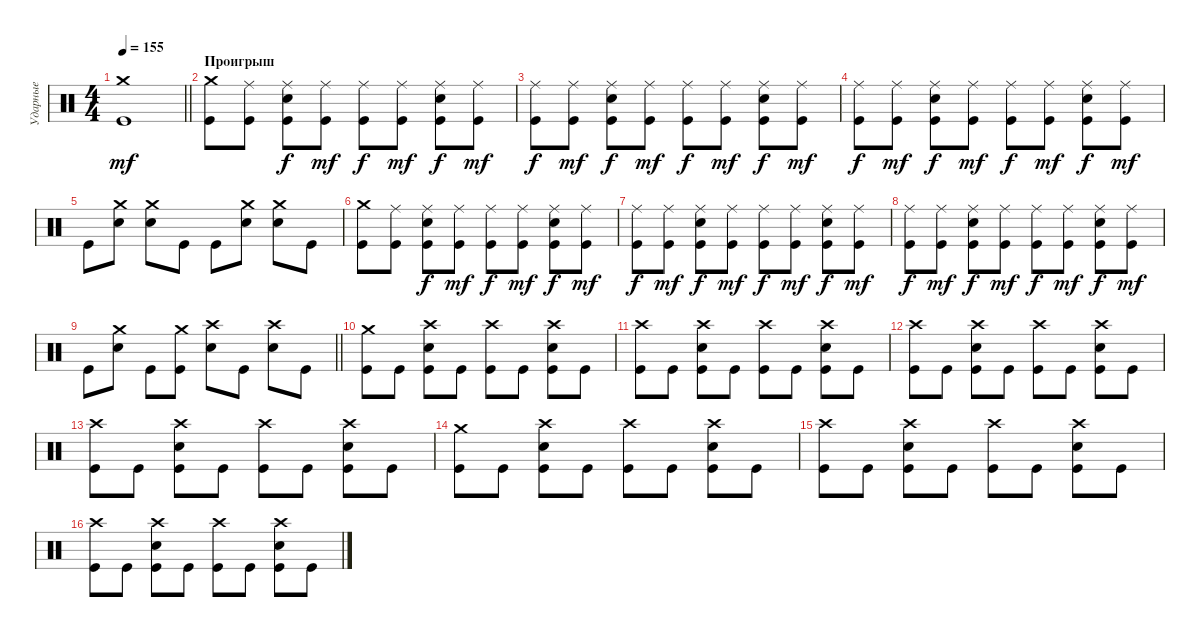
\track ("Ударные" "Ударные") {instrument percussion}
\staff {score}
\articulation defaults
\ts (4 4)
\tempo 155
\clef neutral
\barLineRight lightlight
\ks c
("Crash medium (hit)" "Kick (hit)").1{dy mf} |
\section ("" "Проигрыш")
("Kick (hit)" "Crash medium (hit)").8 ("Kick (hit)" "Ride (middle)").8 ("Electric Snare (hit)" "Kick (hit)" "Ride (middle)").8{dy f} ("Kick (hit)" "Ride (middle)").8{dy mf} ("Kick (hit)" "Ride (middle)").8{dy f} ("Kick (hit)" "Ride (middle)").8{dy mf} ("Electric Snare (hit)" "Kick (hit)" "Ride (middle)").8{dy f} ("Kick (hit)" "Ride (middle)").8{dy mf} |
("Kick (hit)" "Ride (middle)").8{dy f} ("Kick (hit)" "Ride (middle)").8{dy mf} ("Electric Snare (hit)" "Kick (hit)" "Ride (middle)").8{dy f} ("Kick (hit)" "Ride (middle)").8{dy mf} ("Kick (hit)" "Ride (middle)").8{dy f} ("Kick (hit)" "Ride (middle)").8{dy mf} ("Electric Snare (hit)" "Kick (hit)" "Ride (middle)").8{dy f} ("Kick (hit)" "Ride (middle)").8{dy mf} |
("Kick (hit)" "Ride (middle)").8{dy f} ("Kick (hit)" "Ride (middle)").8{dy mf} ("Electric Snare (hit)" "Kick (hit)" "Ride (middle)").8{dy f} ("Kick (hit)" "Ride (middle)").8{dy mf} ("Kick (hit)" "Ride (middle)").8{dy f} ("Kick (hit)" "Ride (middle)").8{dy mf} ("Electric Snare (hit)" "Kick (hit)" "Ride (middle)").8{dy f} ("Kick (hit)" "Ride (middle)").8{dy mf} |
"Kick (hit)".8 ("Crash medium (hit)" "Electric Snare (hit)").8 ("Crash medium (hit)" "Electric Snare (hit)").8 "Kick (hit)".8 "Kick (hit)".8 ("Crash medium (hit)" "Electric Snare (hit)").8 ("Crash medium (hit)" "Electric Snare (hit)").8 "Kick (hit)".8 |
("Kick (hit)" "Crash medium (hit)").8 ("Kick (hit)" "Ride (middle)").8 ("Electric Snare (hit)" "Kick (hit)" "Ride (middle)").8{dy f} ("Kick (hit)" "Ride (middle)").8{dy mf} ("Kick (hit)" "Ride (middle)").8{dy f} ("Kick (hit)" "Ride (middle)").8{dy mf} ("Electric Snare (hit)" "Kick (hit)" "Ride (middle)").8{dy f} ("Kick (hit)" "Ride (middle)").8{dy mf} |
("Kick (hit)" "Ride (middle)").8{dy f} ("Kick (hit)" "Ride (middle)").8{dy mf} ("Electric Snare (hit)" "Kick (hit)" "Ride (middle)").8{dy f} ("Kick (hit)" "Ride (middle)").8{dy mf} ("Kick (hit)" "Ride (middle)").8{dy f} ("Kick (hit)" "Ride (middle)").8{dy mf} ("Electric Snare (hit)" "Kick (hit)" "Ride (middle)").8{dy f} ("Kick (hit)" "Ride (middle)").8{dy mf} |
("Kick (hit)" "Ride (middle)").8{dy f} ("Kick (hit)" "Ride (middle)").8{dy mf} ("Electric Snare (hit)" "Kick (hit)" "Ride (middle)").8{dy f} ("Kick (hit)" "Ride (middle)").8{dy mf} ("Kick (hit)" "Ride (middle)").8{dy f} ("Kick (hit)" "Ride (middle)").8{dy mf} ("Electric Snare (hit)" "Kick (hit)" "Ride (middle)").8{dy f} ("Kick (hit)" "Ride (middle)").8{dy mf} |
\barLineRight lightlight "Kick (hit)".8
("Crash medium (hit)" "Electric Snare (hit)").8 "Kick (hit)".8 ("Crash medium (hit)" "Kick (hit)").8 ("Crash high (hit)" "Electric Snare (hit)").8 "Kick (hit)".8 ("Crash high (hit)" "Electric Snare (hit)").8 "Kick (hit)".8 |
\section ("" " ")
("Crash medium (hit)" "Kick (hit)").8 "Kick (hit)".8 ("Crash high (hit)" "Kick (hit)" "Electric Snare (hit)").8 "Kick (hit)".8 ("Crash high (hit)" "Kick (hit)").8 "Kick (hit)".8 ("Crash high (hit)" "Kick (hit)" "Electric Snare (hit)").8 "Kick (hit)".8 |
("Crash high (hit)" "Kick (hit)").8 "Kick (hit)".8 ("Crash high (hit)" "Kick (hit)" "Electric Snare (hit)").8 "Kick (hit)".8 ("Crash high (hit)" "Kick (hit)").8 "Kick (hit)".8 ("Crash high (hit)" "Kick (hit)" "Electric Snare (hit)").8 "Kick (hit)".8 |
("Crash high (hit)" "Kick (hit)").8 "Kick (hit)".8 ("Crash high (hit)" "Kick (hit)" "Electric Snare (hit)").8 "Kick (hit)".8 ("Crash high (hit)" "Kick (hit)").8 "Kick (hit)".8 ("Crash high (hit)" "Kick (hit)" "Electric Snare (hit)").8 "Kick (hit)".8 |
("Crash high (hit)" "Kick (hit)").8 "Kick (hit)".8 ("Crash high (hit)" "Kick (hit)" "Electric Snare (hit)").8 "Kick (hit)".8 ("Crash high (hit)" "Kick (hit)").8 "Kick (hit)".8 ("Crash high (hit)" "Kick (hit)" "Electric Snare (hit)").8 "Kick (hit)".8 |
("Crash medium (hit)" "Kick (hit)").8 "Kick (hit)".8 ("Crash high (hit)" "Kick (hit)" "Electric Snare (hit)").8 "Kick (hit)".8 ("Crash high (hit)" "Kick (hit)").8 "Kick (hit)".8 ("Crash high (hit)" "Kick (hit)" "Electric Snare (hit)").8 "Kick (hit)".8 |
("Crash high (hit)" "Kick (hit)").8 "Kick (hit)".8 ("Crash high (hit)" "Kick (hit)" "Electric Snare (hit)").8 "Kick (hit)".8 ("Crash high (hit)" "Kick (hit)").8 "Kick (hit)".8 ("Crash high (hit)" "Kick (hit)" "Electric Snare (hit)").8 "Kick (hit)".8 |
("Crash high (hit)" "Kick (hit)").8 "Kick (hit)".8 ("Crash high (hit)" "Kick (hit)" "Electric Snare (hit)").8 "Kick (hit)".8 ("Crash high (hit)" "Kick (hit)").8 "Kick (hit)".8 ("Crash high (hit)" "Kick (hit)" "Electric Snare (hit)").8 "Kick (hit)".8
